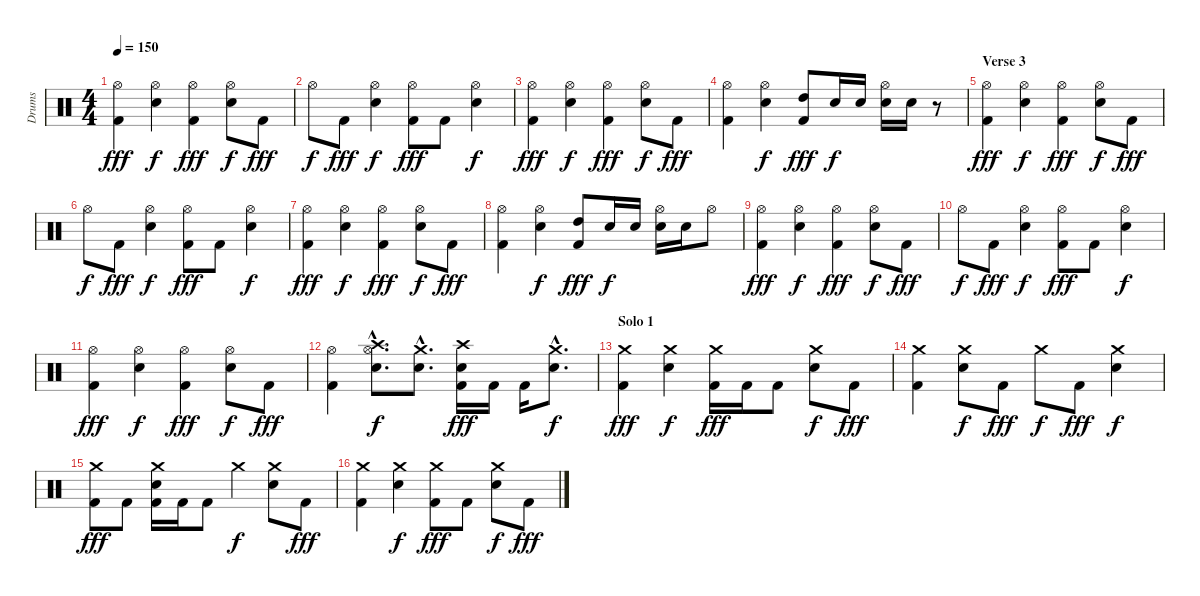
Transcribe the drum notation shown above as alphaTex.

\track ("Drums" "Drums") {instrument percussion}
\staff {score}
\articulation defaults
\ts (4 4)
\tempo 150
\clef neutral
\ks c
("Hi-Hat (open)" "Kick (hit) 2").4{dy fff} ("Hi-Hat (open)" "Electric Snare (hit)").4{dy f} ("Hi-Hat (open)" "Kick (hit) 2").4{dy fff} ("Hi-Hat (open)" "Electric Snare (hit)").8{dy f} "Kick (hit) 2".8{dy fff} |
"Hi-Hat (open)".8{dy f} "Kick (hit) 2".8{dy fff} ("Hi-Hat (open)" "Electric Snare (hit)").4{dy f} ("Hi-Hat (open)" "Kick (hit) 2").8{dy fff} "Kick (hit) 2".8 ("Hi-Hat (open)" "Electric Snare (hit)").4{dy f} |
("Hi-Hat (open)" "Kick (hit) 2").4{dy fff} ("Hi-Hat (open)" "Electric Snare (hit)").4{dy f} ("Hi-Hat (open)" "Kick (hit) 2").4{dy fff} ("Hi-Hat (open)" "Electric Snare (hit)").8{dy f} "Kick (hit) 2".8{dy fff} |
("Hi-Hat (open)" "Kick (hit) 2").4 ("Hi-Hat (open)" "Electric Snare (hit)").4{dy f} ("High Tom (hit)" "Kick (hit) 2").8{dy fff} "Electric Snare (hit)".16{dy f} "Electric Snare (hit)".16 ("Hi-Hat (open)" "Electric Snare (hit)").16 "Electric Snare (hit)".16 r.8 |
\section ("" "Verse 3")
("Hi-Hat (open)" "Kick (hit) 2").4{dy fff} ("Hi-Hat (open)" "Electric Snare (hit)").4{dy f} ("Hi-Hat (open)" "Kick (hit) 2").4{dy fff} ("Hi-Hat (open)" "Electric Snare (hit)").8{dy f} "Kick (hit) 2".8{dy fff} |
"Hi-Hat (open)".8{dy f} "Kick (hit) 2".8{dy fff} ("Hi-Hat (open)" "Electric Snare (hit)").4{dy f} ("Hi-Hat (open)" "Kick (hit) 2").8{dy fff} "Kick (hit) 2".8 ("Hi-Hat (open)" "Electric Snare (hit)").4{dy f} |
("Hi-Hat (open)" "Kick (hit) 2").4{dy fff} ("Hi-Hat (open)" "Electric Snare (hit)").4{dy f} ("Hi-Hat (open)" "Kick (hit) 2").4{dy fff} ("Hi-Hat (open)" "Electric Snare (hit)").8{dy f} "Kick (hit) 2".8{dy fff} |
("Hi-Hat (open)" "Kick (hit) 2").4 ("Hi-Hat (open)" "Electric Snare (hit)").4{dy f} ("High Tom (hit)" "Kick (hit) 2").8{dy fff} "Electric Snare (hit)".16{dy f} "Electric Snare (hit)".16 ("Hi-Hat (open)" "Electric Snare (hit)").16 "Electric Snare (hit)".16 "Hi-Hat (open)".8 |
("Hi-Hat (open)" "Kick (hit) 2").4{dy fff} ("Hi-Hat (open)" "Electric Snare (hit)").4{dy f} ("Hi-Hat (open)" "Kick (hit) 2").4{dy fff} ("Hi-Hat (open)" "Electric Snare (hit)").8{dy f} "Kick (hit) 2".8{dy fff} |
"Hi-Hat (open)".8{dy f} "Kick (hit) 2".8{dy fff} ("Hi-Hat (open)" "Electric Snare (hit)").4{dy f} ("Hi-Hat (open)" "Kick (hit) 2").8{dy fff} "Kick (hit) 2".8 ("Hi-Hat (open)" "Electric Snare (hit)").4{dy f} |
("Hi-Hat (open)" "Kick (hit) 2").4{dy fff} ("Hi-Hat (open)" "Electric Snare (hit)").4{dy f} ("Hi-Hat (open)" "Kick (hit) 2").4{dy fff} ("Hi-Hat (open)" "Electric Snare (hit)").8{dy f} "Kick (hit) 2".8{dy fff} |
("Hi-Hat (open)" "Kick (hit) 2").4 ("Crash high (hit)"{hac} "Hi-Hat (open)"{hac} "Electric Snare (hit)"{hac}).8{d dy f} ("Crash medium (hit)"{hac} "Electric Snare (hit)"{hac}).8{d} ("Crash high (hit)" "Electric Snare (hit)" "Kick (hit) 2").16{dy fff} "Kick (hit) 2".16 "Kick (hit) 2".16 ("Crash medium (hit)"{hac} "Electric Snare (hit)"{hac}).8{d dy f} |
\section ("" "Solo 1")
("Crash medium (hit)" "Kick (hit) 2").4{dy fff} ("Crash medium (hit)" "Electric Snare (hit)").4{dy f} ("Crash medium (hit)" "Kick (hit) 2").16{dy fff} "Kick (hit) 2".16 "Kick (hit) 2".8 ("Crash medium (hit)" "Electric Snare (hit)").8{dy f} "Kick (hit) 2".8{dy fff} |
("Crash medium (hit)" "Kick (hit) 2").4 ("Crash medium (hit)" "Electric Snare (hit)").8{dy f} "Kick (hit) 2".8{dy fff} "Crash medium (hit)".8{dy f} "Kick (hit) 2".8{dy fff} ("Crash medium (hit)" "Electric Snare (hit)").4{dy f} |
("Crash medium (hit)" "Kick (hit) 2").8{dy fff} "Kick (hit) 2".8 ("Crash medium (hit)" "Electric Snare (hit)" "Kick (hit) 2").16 "Kick (hit) 2".16 "Kick (hit) 2".8 "Crash medium (hit)".4{dy f} ("Crash medium (hit)" "Electric Snare (hit)").8 "Kick (hit) 2".8{dy fff} |
("Crash medium (hit)" "Kick (hit) 2").4 ("Crash medium (hit)" "Electric Snare (hit)").4{dy f} ("Crash medium (hit)" "Kick (hit) 2").8{dy fff} "Kick (hit) 2".8 ("Crash medium (hit)" "Electric Snare (hit)").8{dy f} "Kick (hit) 2".8{dy fff}
